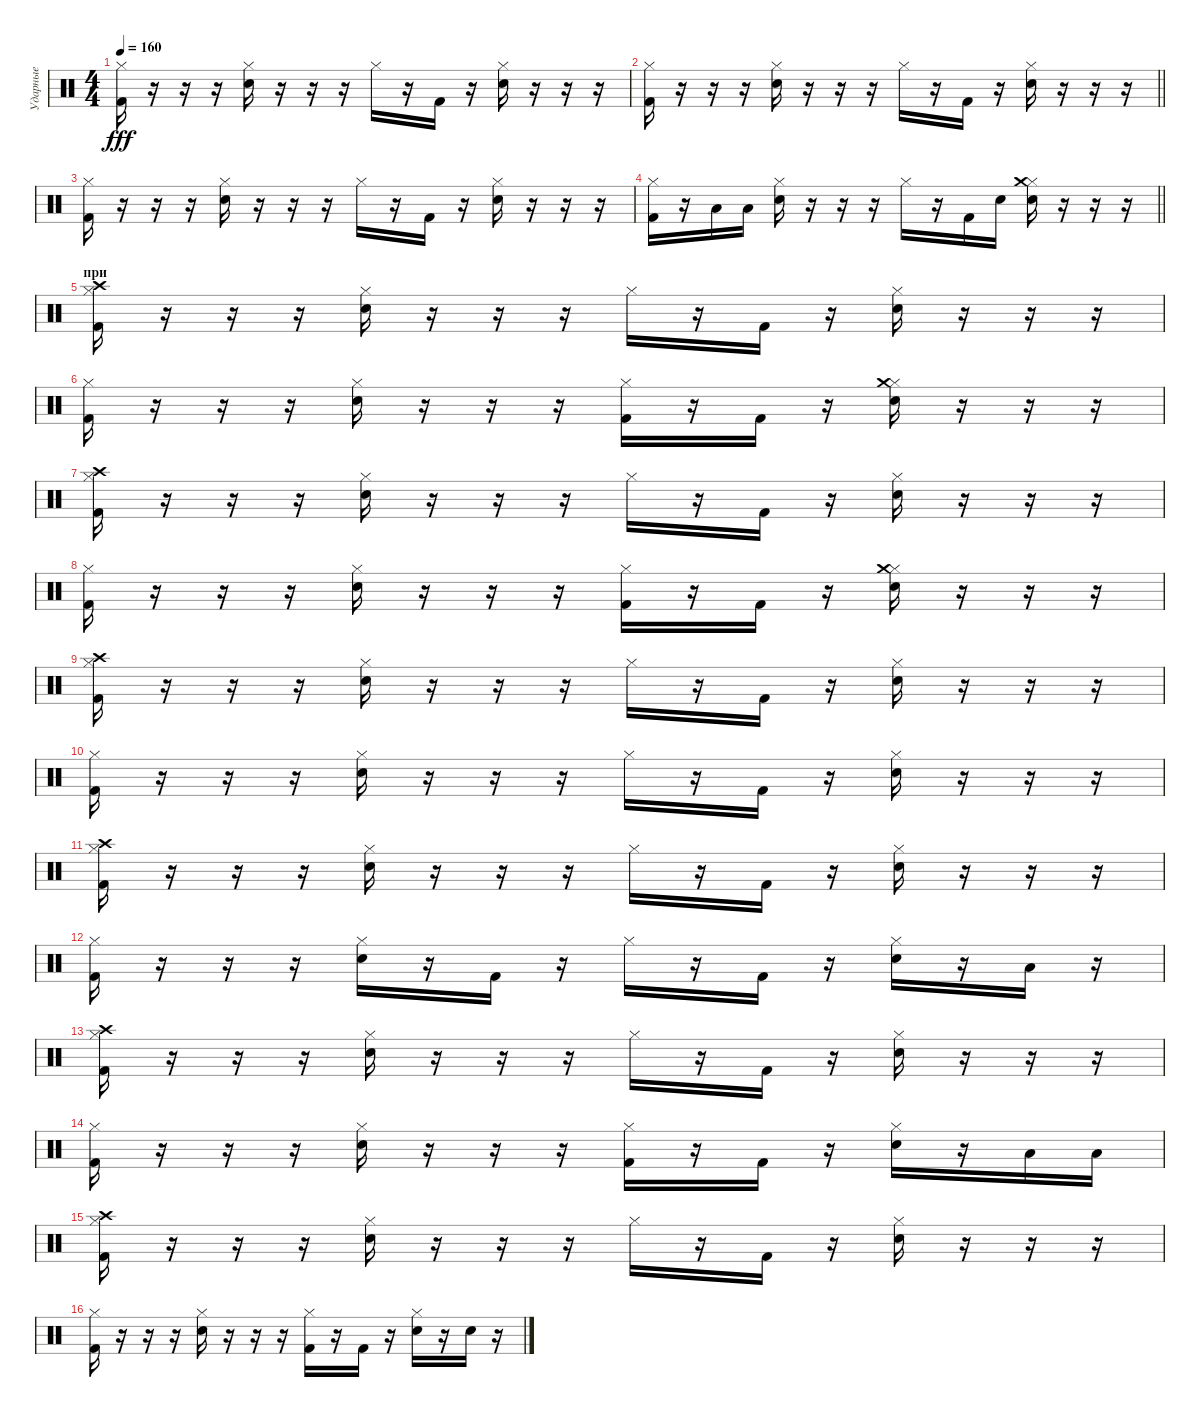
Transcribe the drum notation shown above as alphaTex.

\track ("Ударные" "Ударные") {instrument percussion}
\staff {score}
\articulation defaults
\ts (4 4)
\tempo 160
\clef neutral
\ks c
("Kick (hit) 2" "Hi-Hat (closed)").16{dy fff} r.16 r.16 r.16 ("Snare (hit) 2" "Hi-Hat (closed)").16 r.16 r.16 r.16 "Hi-Hat (closed)".16 r.16 "Kick (hit) 2".16 r.16 ("Snare (hit) 2" "Hi-Hat (closed)").16 r.16 r.16 r.16 |
\barLineRight lightlight
("Kick (hit) 2" "Hi-Hat (closed)").16 r.16 r.16 r.16 ("Snare (hit) 2" "Hi-Hat (closed)").16 r.16 r.16 r.16 "Hi-Hat (closed)".16 r.16 "Kick (hit) 2".16 r.16 ("Snare (hit) 2" "Hi-Hat (closed)").16 r.16 r.16 r.16 |
("Kick (hit) 2" "Hi-Hat (closed)").16 r.16 r.16 r.16 ("Snare (hit) 2" "Hi-Hat (closed)").16 r.16 r.16 r.16 "Hi-Hat (closed)".16 r.16 "Kick (hit) 2".16 r.16 ("Snare (hit) 2" "Hi-Hat (closed)").16 r.16 r.16 r.16 |
\barLineRight lightlight
("Kick (hit) 2" "Hi-Hat (closed)").16 r.16 "Low Tom (hit)".16 "Low Tom (hit)".16 ("Snare (hit) 2" "Hi-Hat (closed)").16 r.16 r.16 r.16 "Hi-Hat (closed)".16 r.16 "Kick (hit) 2".16 "Snare (hit) 2".16 ("Snare (hit) 2" "Hi-Hat (closed)" "Crash medium (hit)").16 r.16 r.16 r.16 |
\section ("" "при")
("Kick (hit) 2" "Hi-Hat (closed)" "Crash high (hit)").16 r.16 r.16 r.16 ("Snare (hit) 2" "Hi-Hat (closed)").16 r.16 r.16 r.16 "Hi-Hat (closed)".16 r.16 "Kick (hit) 2".16 r.16 ("Snare (hit) 2" "Hi-Hat (closed)").16 r.16 r.16 r.16 |
("Kick (hit) 2" "Hi-Hat (closed)").16 r.16 r.16 r.16 ("Snare (hit) 2" "Hi-Hat (closed)").16 r.16 r.16 r.16 ("Kick (hit) 2" "Hi-Hat (closed)").16 r.16 "Kick (hit) 2".16 r.16 ("Snare (hit) 2" "Hi-Hat (closed)" "Crash medium (hit)").16 r.16 r.16 r.16 |
("Kick (hit) 2" "Hi-Hat (closed)" "Crash high (hit)").16 r.16 r.16 r.16 ("Snare (hit) 2" "Hi-Hat (closed)").16 r.16 r.16 r.16 "Hi-Hat (closed)".16 r.16 "Kick (hit) 2".16 r.16 ("Snare (hit) 2" "Hi-Hat (closed)").16 r.16 r.16 r.16 |
("Kick (hit) 2" "Hi-Hat (closed)").16 r.16 r.16 r.16 ("Snare (hit) 2" "Hi-Hat (closed)").16 r.16 r.16 r.16 ("Kick (hit) 2" "Hi-Hat (closed)").16 r.16 "Kick (hit) 2".16 r.16 ("Snare (hit) 2" "Hi-Hat (closed)" "Crash medium (hit)").16 r.16 r.16 r.16 |
("Kick (hit) 2" "Hi-Hat (closed)" "Crash high (hit)").16 r.16 r.16 r.16 ("Snare (hit) 2" "Hi-Hat (closed)").16 r.16 r.16 r.16 "Hi-Hat (closed)".16 r.16 "Kick (hit) 2".16 r.16 ("Snare (hit) 2" "Hi-Hat (closed)").16 r.16 r.16 r.16 |
("Kick (hit) 2" "Hi-Hat (closed)").16 r.16 r.16 r.16 ("Snare (hit) 2" "Hi-Hat (closed)").16 r.16 r.16 r.16 "Hi-Hat (closed)".16 r.16 "Kick (hit) 2".16 r.16 ("Snare (hit) 2" "Hi-Hat (closed)").16 r.16 r.16 r.16 |
("Kick (hit) 2" "Hi-Hat (closed)" "Crash high (hit)").16 r.16 r.16 r.16 ("Snare (hit) 2" "Hi-Hat (closed)").16 r.16 r.16 r.16 "Hi-Hat (closed)".16 r.16 "Kick (hit) 2".16 r.16 ("Snare (hit) 2" "Hi-Hat (closed)").16 r.16 r.16 r.16 |
("Kick (hit) 2" "Hi-Hat (closed)").16 r.16 r.16 r.16 ("Snare (hit) 2" "Hi-Hat (closed)").16 r.16 "Kick (hit) 2".16 r.16 "Hi-Hat (closed)".16 r.16 "Kick (hit) 2".16 r.16 ("Snare (hit) 2" "Hi-Hat (closed)").16 r.16 "Low Tom (hit)".16 r.16 |
("Kick (hit) 2" "Hi-Hat (closed)" "Crash high (hit)").16 r.16 r.16 r.16 ("Snare (hit) 2" "Hi-Hat (closed)").16 r.16 r.16 r.16 "Hi-Hat (closed)".16 r.16 "Kick (hit) 2".16 r.16 ("Snare (hit) 2" "Hi-Hat (closed)").16 r.16 r.16 r.16 |
("Kick (hit) 2" "Hi-Hat (closed)").16 r.16 r.16 r.16 ("Snare (hit) 2" "Hi-Hat (closed)").16 r.16 r.16 r.16 ("Kick (hit) 2" "Hi-Hat (closed)").16 r.16 "Kick (hit) 2".16 r.16 ("Snare (hit) 2" "Hi-Hat (closed)").16 r.16 "Low Tom (hit)".16 "Low Tom (hit)".16 |
("Kick (hit) 2" "Hi-Hat (closed)" "Crash high (hit)").16 r.16 r.16 r.16 ("Snare (hit) 2" "Hi-Hat (closed)").16 r.16 r.16 r.16 "Hi-Hat (closed)".16 r.16 "Kick (hit) 2".16 r.16 ("Snare (hit) 2" "Hi-Hat (closed)").16 r.16 r.16 r.16 |
("Kick (hit) 2" "Hi-Hat (closed)").16 r.16 r.16 r.16 ("Snare (hit) 2" "Hi-Hat (closed)").16 r.16 r.16 r.16 ("Kick (hit) 2" "Hi-Hat (closed)").16 r.16 "Kick (hit) 2".16 r.16 ("Snare (hit) 2" "Hi-Hat (closed)").16 r.16 "Electric Snare (hit)".16 r.16
